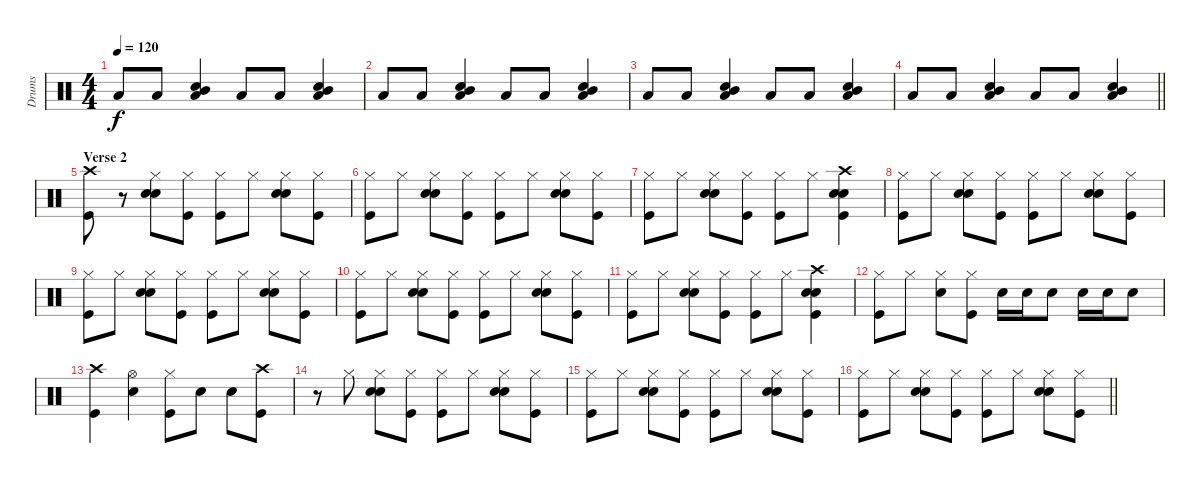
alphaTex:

\track ("Drums" "Drums") {instrument percussion}
\staff {score}
\articulation defaults
\ts (4 4)
\tempo 120
\clef neutral
\ks c "Low Tom (hit)".8{dy f} "Low Tom (hit)".8
("Hand Clap (hit)" "Mid Tom (hit)" "Low Tom (hit)").4 "Low Tom (hit)".8 "Low Tom (hit)".8 ("Hand Clap (hit)" "Mid Tom (hit)" "Low Tom (hit)").4 |
"Low Tom (hit)".8 "Low Tom (hit)".8 ("Hand Clap (hit)" "Mid Tom (hit)" "Low Tom (hit)").4 "Low Tom (hit)".8 "Low Tom (hit)".8 ("Hand Clap (hit)" "Mid Tom (hit)" "Low Tom (hit)").4 |
"Low Tom (hit)".8 "Low Tom (hit)".8 ("Hand Clap (hit)" "Mid Tom (hit)" "Low Tom (hit)").4 "Low Tom (hit)".8 "Low Tom (hit)".8 ("Hand Clap (hit)" "Mid Tom (hit)" "Low Tom (hit)").4 |
\barLineRight lightlight "Low Tom (hit)".8 "Low Tom (hit)".8
("Hand Clap (hit)" "Mid Tom (hit)" "Low Tom (hit)").4 "Low Tom (hit)".8 "Low Tom (hit)".8 ("Hand Clap (hit)" "Mid Tom (hit)" "Low Tom (hit)").4 |
\section ("" "Verse 2")
("Crash high (hit)" "Kick (hit)").8 r.8 ("Hi-Hat (closed)" "Snare (hit) 2" "Hand Clap (hit)").8 ("Hi-Hat (closed)" "Kick (hit)").8 ("Hi-Hat (closed)" "Kick (hit)").8 "Hi-Hat (closed)".8 ("Hi-Hat (closed)" "Snare (hit) 2" "Hand Clap (hit)").8 ("Hi-Hat (closed)" "Kick (hit)").8 |
("Hi-Hat (closed)" "Kick (hit)").8 "Hi-Hat (closed)".8 ("Hi-Hat (closed)" "Snare (hit) 2" "Hand Clap (hit)").8 ("Hi-Hat (closed)" "Kick (hit)").8 ("Hi-Hat (closed)" "Kick (hit)").8 "Hi-Hat (closed)".8 ("Hi-Hat (closed)" "Snare (hit) 2" "Hand Clap (hit)").8 ("Hi-Hat (closed)" "Kick (hit)").8 |
("Hi-Hat (closed)" "Kick (hit)").8 "Hi-Hat (closed)".8 ("Hi-Hat (closed)" "Snare (hit) 2" "Hand Clap (hit)").8 ("Hi-Hat (closed)" "Kick (hit)").8 ("Hi-Hat (closed)" "Kick (hit)").8 "Hi-Hat (closed)".8 ("Crash high (hit)" "Snare (hit) 2" "Hand Clap (hit)" "Kick (hit)").4 |
("Hi-Hat (closed)" "Kick (hit)").8 "Hi-Hat (closed)".8 ("Hi-Hat (closed)" "Snare (hit) 2" "Hand Clap (hit)").8 ("Hi-Hat (closed)" "Kick (hit)").8 ("Hi-Hat (closed)" "Kick (hit)").8 "Hi-Hat (closed)".8 ("Hi-Hat (closed)" "Snare (hit) 2" "Hand Clap (hit)").8 ("Hi-Hat (closed)" "Kick (hit)").8 |
("Hi-Hat (closed)" "Kick (hit)").8 "Hi-Hat (closed)".8 ("Hi-Hat (closed)" "Snare (hit) 2" "Hand Clap (hit)").8 ("Hi-Hat (closed)" "Kick (hit)").8 ("Hi-Hat (closed)" "Kick (hit)").8 "Hi-Hat (closed)".8 ("Hi-Hat (closed)" "Snare (hit) 2" "Hand Clap (hit)").8 ("Hi-Hat (closed)" "Kick (hit)").8 |
("Hi-Hat (closed)" "Kick (hit)").8 "Hi-Hat (closed)".8 ("Hi-Hat (closed)" "Snare (hit) 2" "Hand Clap (hit)").8 ("Hi-Hat (closed)" "Kick (hit)").8 ("Hi-Hat (closed)" "Kick (hit)").8 "Hi-Hat (closed)".8 ("Hi-Hat (closed)" "Snare (hit) 2" "Hand Clap (hit)").8 ("Hi-Hat (closed)" "Kick (hit)").8 |
("Hi-Hat (closed)" "Kick (hit)").8 "Hi-Hat (closed)".8 ("Hi-Hat (closed)" "Snare (hit) 2" "Hand Clap (hit)").8 ("Hi-Hat (closed)" "Kick (hit)").8 ("Hi-Hat (closed)" "Kick (hit)").8 "Hi-Hat (closed)".8 ("Crash high (hit)" "Snare (hit) 2" "Hand Clap (hit)" "Kick (hit)").4 |
("Hi-Hat (closed)" "Kick (hit)").8 "Hi-Hat (closed)".8 ("Hi-Hat (closed)" "Snare (hit) 2").8 ("Hi-Hat (closed)" "Kick (hit)").8 "Snare (hit) 2".16 "Snare (hit) 2".16 "Snare (hit) 2".8 "Snare (hit) 2".16 "Snare (hit) 2".16 "Snare (hit) 2".8 |
("Crash high (hit)" "Kick (hit)").4 ("Hi-Hat (open)" "Snare (hit) 2").4 ("Hi-Hat (closed)" "Kick (hit)").8 "Snare (hit) 2".8 "Snare (hit) 2".8 ("Crash high (hit)" "Kick (hit)").8 |
r.8 "Hi-Hat (closed)".8 ("Hi-Hat (closed)" "Snare (hit) 2" "Hand Clap (hit)").8 ("Hi-Hat (closed)" "Kick (hit)").8 ("Hi-Hat (closed)" "Kick (hit)").8 "Hi-Hat (closed)".8 ("Hi-Hat (closed)" "Snare (hit) 2" "Hand Clap (hit)").8 ("Hi-Hat (closed)" "Kick (hit)").8 |
("Hi-Hat (closed)" "Kick (hit)").8 "Hi-Hat (closed)".8 ("Hi-Hat (closed)" "Snare (hit) 2" "Hand Clap (hit)").8 ("Hi-Hat (closed)" "Kick (hit)").8 ("Hi-Hat (closed)" "Kick (hit)").8 "Hi-Hat (closed)".8 ("Hi-Hat (closed)" "Snare (hit) 2" "Hand Clap (hit)").8 ("Hi-Hat (closed)" "Kick (hit)").8 |
\barLineRight lightlight
("Hi-Hat (closed)" "Kick (hit)").8 "Hi-Hat (closed)".8 ("Hi-Hat (closed)" "Snare (hit) 2" "Hand Clap (hit)").8 ("Hi-Hat (closed)" "Kick (hit)").8 ("Hi-Hat (closed)" "Kick (hit)").8 "Hi-Hat (closed)".8 ("Hi-Hat (closed)" "Snare (hit) 2" "Hand Clap (hit)").8 ("Hi-Hat (closed)" "Kick (hit)").8
